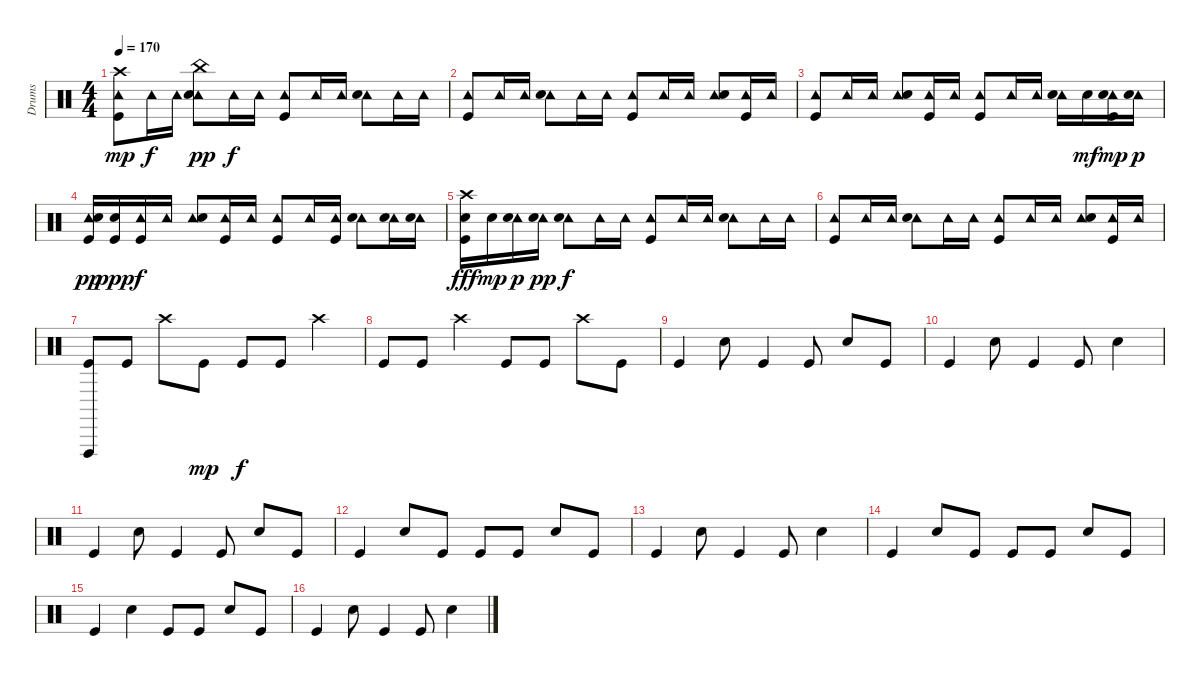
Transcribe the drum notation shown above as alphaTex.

\track ("Drums" "Drums") {instrument percussion}
\staff {score}
\articulation defaults
\ts (4 4)
\tempo 170
\clef neutral
\ks c
("Crash high (hit)" "Tambourine (hit)" "Kick (hit)").8{dy mp} "Tambourine (hit)".16{dy f} "Tambourine (hit)".16 ("China (hit)" "Tambourine (hit)" "Electric Snare (hit)").8{dy pp} "Tambourine (hit)".16{dy f} "Tambourine (hit)".16 ("Tambourine (hit)" "Kick (hit)").8 "Tambourine (hit)".16 "Tambourine (hit)".16 ("Tambourine (hit)" "Electric Snare (hit)").8 "Tambourine (hit)".16 "Tambourine (hit)".16 |
("Tambourine (hit)" "Kick (hit)").8 "Tambourine (hit)".16 "Tambourine (hit)".16 ("Tambourine (hit)" "Electric Snare (hit)").8 "Tambourine (hit)".16 "Tambourine (hit)".16 ("Tambourine (hit)" "Kick (hit)").8 "Tambourine (hit)".16 "Tambourine (hit)".16 ("Tambourine (hit)" "Electric Snare (hit)").8 ("Tambourine (hit)" "Kick (hit)").16 "Tambourine (hit)".16 |
("Tambourine (hit)" "Kick (hit)").8 "Tambourine (hit)".16 "Tambourine (hit)".16 ("Tambourine (hit)" "Electric Snare (hit)").8 ("Tambourine (hit)" "Kick (hit)").16 "Tambourine (hit)".16 ("Tambourine (hit)" "Kick (hit)").8 "Tambourine (hit)".16 "Tambourine (hit)".16 ("Tambourine (hit)" "Electric Snare (hit)").16 "Electric Snare (hit)".16{dy mf} ("Tambourine (hit)" "Electric Snare (hit)" "Kick (hit)").16{dy mp} ("Tambourine (hit)" "Electric Snare (hit)").16{dy p} |
("Tambourine (hit)" "Electric Snare (hit)" "Kick (hit)").16{dy pp} ("Electric Snare (hit)" "Kick (hit)").16{dy ppp} ("Tambourine (hit)" "Kick (hit)").16{dy f} "Tambourine (hit)".16 ("Tambourine (hit)" "Electric Snare (hit)").8 ("Tambourine (hit)" "Kick (hit)").16 "Tambourine (hit)".16 ("Tambourine (hit)" "Kick (hit)").8 "Tambourine (hit)".16 ("Tambourine (hit)" "Kick (hit)").16 ("Tambourine (hit)" "Electric Snare (hit)").8 ("Tambourine (hit)" "Electric Snare (hit)").16 ("Tambourine (hit)" "Electric Snare (hit)").16 |
("Crash high (hit)" "Electric Snare (hit)" "Kick (hit)").16{dy fff} "Electric Snare (hit)".16{dy mp} ("Tambourine (hit)" "Electric Snare (hit)").16{dy p} ("Tambourine (hit)" "Electric Snare (hit)").16{dy pp} ("Tambourine (hit)" "Electric Snare (hit)").8{dy f} "Tambourine (hit)".16 "Tambourine (hit)".16 ("Tambourine (hit)" "Kick (hit)").8 "Tambourine (hit)".16 "Tambourine (hit)".16 ("Tambourine (hit)" "Electric Snare (hit)").8 "Tambourine (hit)".16 "Tambourine (hit)".16 |
("Tambourine (hit)" "Kick (hit)").8 "Tambourine (hit)".16 "Tambourine (hit)".16 ("Tambourine (hit)" "Electric Snare (hit)").8 "Tambourine (hit)".16 "Tambourine (hit)".16 ("Tambourine (hit)" "Kick (hit)").8 "Tambourine (hit)".16 "Tambourine (hit)".16 ("Tambourine (hit)" "Electric Snare (hit)").8 ("Tambourine (hit)" "Kick (hit)").16 "Tambourine (hit)".16 |
("Vibraslap (hit)" "Kick (hit)").8 "Kick (hit)".8 "Crash high (hit)".8 "Kick (hit)".8{dy mp} "Kick (hit)".8{dy f} "Kick (hit)".8 "Crash high (hit)".4 |
"Kick (hit)".8 "Kick (hit)".8 "Crash high (hit)".4 "Kick (hit)".8 "Kick (hit)".8 "Crash high (hit)".8 "Kick (hit)".8 |
"Kick (hit)".4 "Electric Snare (hit)".8 "Kick (hit)".4 "Kick (hit)".8 "Electric Snare (hit)".8 "Kick (hit)".8 |
"Kick (hit)".4 "Electric Snare (hit)".8 "Kick (hit)".4 "Kick (hit)".8 "Electric Snare (hit)".4 |
"Kick (hit)".4 "Electric Snare (hit)".8 "Kick (hit)".4 "Kick (hit)".8 "Electric Snare (hit)".8 "Kick (hit)".8 |
"Kick (hit)".4 "Electric Snare (hit)".8 "Kick (hit)".8 "Kick (hit)".8 "Kick (hit)".8 "Electric Snare (hit)".8 "Kick (hit)".8 |
"Kick (hit)".4 "Electric Snare (hit)".8 "Kick (hit)".4 "Kick (hit)".8 "Electric Snare (hit)".4 |
"Kick (hit)".4 "Electric Snare (hit)".8 "Kick (hit)".8 "Kick (hit)".8 "Kick (hit)".8 "Electric Snare (hit)".8 "Kick (hit)".8 |
"Kick (hit)".4 "Electric Snare (hit)".4 "Kick (hit)".8 "Kick (hit)".8 "Electric Snare (hit)".8 "Kick (hit)".8 |
"Kick (hit)".4 "Electric Snare (hit)".8 "Kick (hit)".4 "Kick (hit)".8 "Electric Snare (hit)".4
